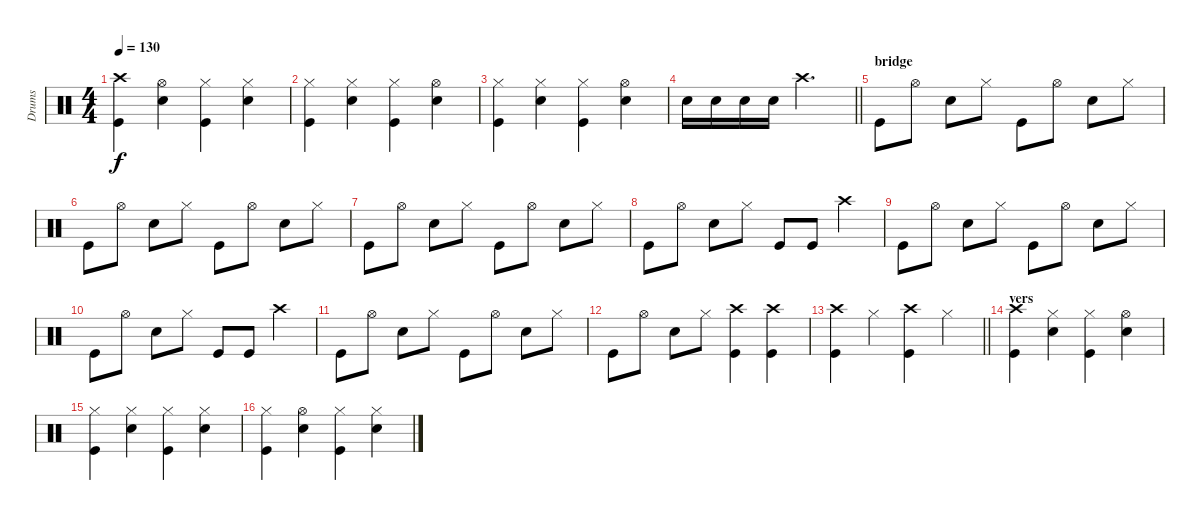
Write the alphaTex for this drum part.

\track ("Drums" "Drums") {instrument percussion}
\staff {score}
\articulation defaults
\ts (4 4)
\tempo 130
\clef neutral
\ks c
("Crash high (hit)" "Kick (hit)").4{dy f} ("Hi-Hat (open)" "Snare (hit) 2").4 ("Hi-Hat (closed)" "Kick (hit)").4 ("Snare (hit) 2" "Hi-Hat (closed)").4 |
("Kick (hit)" "Hi-Hat (closed)").4 ("Snare (hit) 2" "Hi-Hat (closed)").4 ("Kick (hit)" "Hi-Hat (closed)").4 ("Hi-Hat (open)" "Snare (hit) 2").4 |
("Kick (hit)" "Hi-Hat (closed)").4 ("Snare (hit) 2" "Hi-Hat (closed)").4 ("Kick (hit)" "Hi-Hat (closed)").4 ("Hi-Hat (open)" "Snare (hit) 2").4 |
\barLineRight lightlight "Snare (hit) 2".16 "Snare (hit) 2".16 "Snare (hit) 2".16 "Snare (hit) 2".16 "Crash high (hit)".2{d}
|
\section ("" "bridge")
"Kick (hit)".8 "Hi-Hat (open)".8 "Snare (hit) 2".8 "Hi-Hat (closed)".8 "Kick (hit)".8 "Hi-Hat (open)".8 "Snare (hit) 2".8 "Hi-Hat (closed)".8 |
"Kick (hit)".8 "Hi-Hat (open)".8 "Snare (hit) 2".8 "Hi-Hat (closed)".8 "Kick (hit)".8 "Hi-Hat (open)".8 "Snare (hit) 2".8 "Hi-Hat (closed)".8 |
"Kick (hit)".8 "Hi-Hat (open)".8 "Snare (hit) 2".8 "Hi-Hat (closed)".8 "Kick (hit)".8 "Hi-Hat (open)".8 "Snare (hit) 2".8 "Hi-Hat (closed)".8 |
"Kick (hit)".8 "Hi-Hat (open)".8 "Snare (hit) 2".8 "Hi-Hat (closed)".8 "Kick (hit)".8 "Kick (hit)".8 "Crash high (hit)".4 |
"Kick (hit)".8 "Hi-Hat (open)".8 "Snare (hit) 2".8 "Hi-Hat (closed)".8 "Kick (hit)".8 "Hi-Hat (open)".8 "Snare (hit) 2".8 "Hi-Hat (closed)".8 |
"Kick (hit)".8 "Hi-Hat (open)".8 "Snare (hit) 2".8 "Hi-Hat (closed)".8 "Kick (hit)".8 "Kick (hit)".8 "Crash high (hit)".4 |
"Kick (hit)".8 "Hi-Hat (open)".8 "Snare (hit) 2".8 "Hi-Hat (closed)".8 "Kick (hit)".8 "Hi-Hat (open)".8 "Snare (hit) 2".8 "Hi-Hat (closed)".8 |
"Kick (hit)".8 "Hi-Hat (open)".8 "Snare (hit) 2".8 "Hi-Hat (closed)".8 ("Kick (hit)" "Crash high (hit)").4 ("Crash high (hit)" "Kick (hit)").4 |
\barLineRight lightlight
("Crash high (hit)" "Kick (hit)").4 "Hi-Hat (closed)".4 ("Kick (hit)" "Crash high (hit)").4 "Hi-Hat (closed)".4 |
\section ("" "vers")
("Crash high (hit)" "Kick (hit)").4 ("Hi-Hat (closed)" "Snare (hit) 2").4 ("Hi-Hat (closed)" "Kick (hit)").4 ("Hi-Hat (open)" "Snare (hit) 2").4 |
("Kick (hit)" "Hi-Hat (closed)").4 ("Snare (hit) 2" "Hi-Hat (closed)").4 ("Kick (hit)" "Hi-Hat (closed)").4 ("Snare (hit) 2" "Hi-Hat (closed)").4 |
("Kick (hit)" "Hi-Hat (closed)").4 ("Snare (hit) 2" "Hi-Hat (open)").4 ("Kick (hit)" "Hi-Hat (closed)").4 ("Hi-Hat (closed)" "Snare (hit) 2").4
